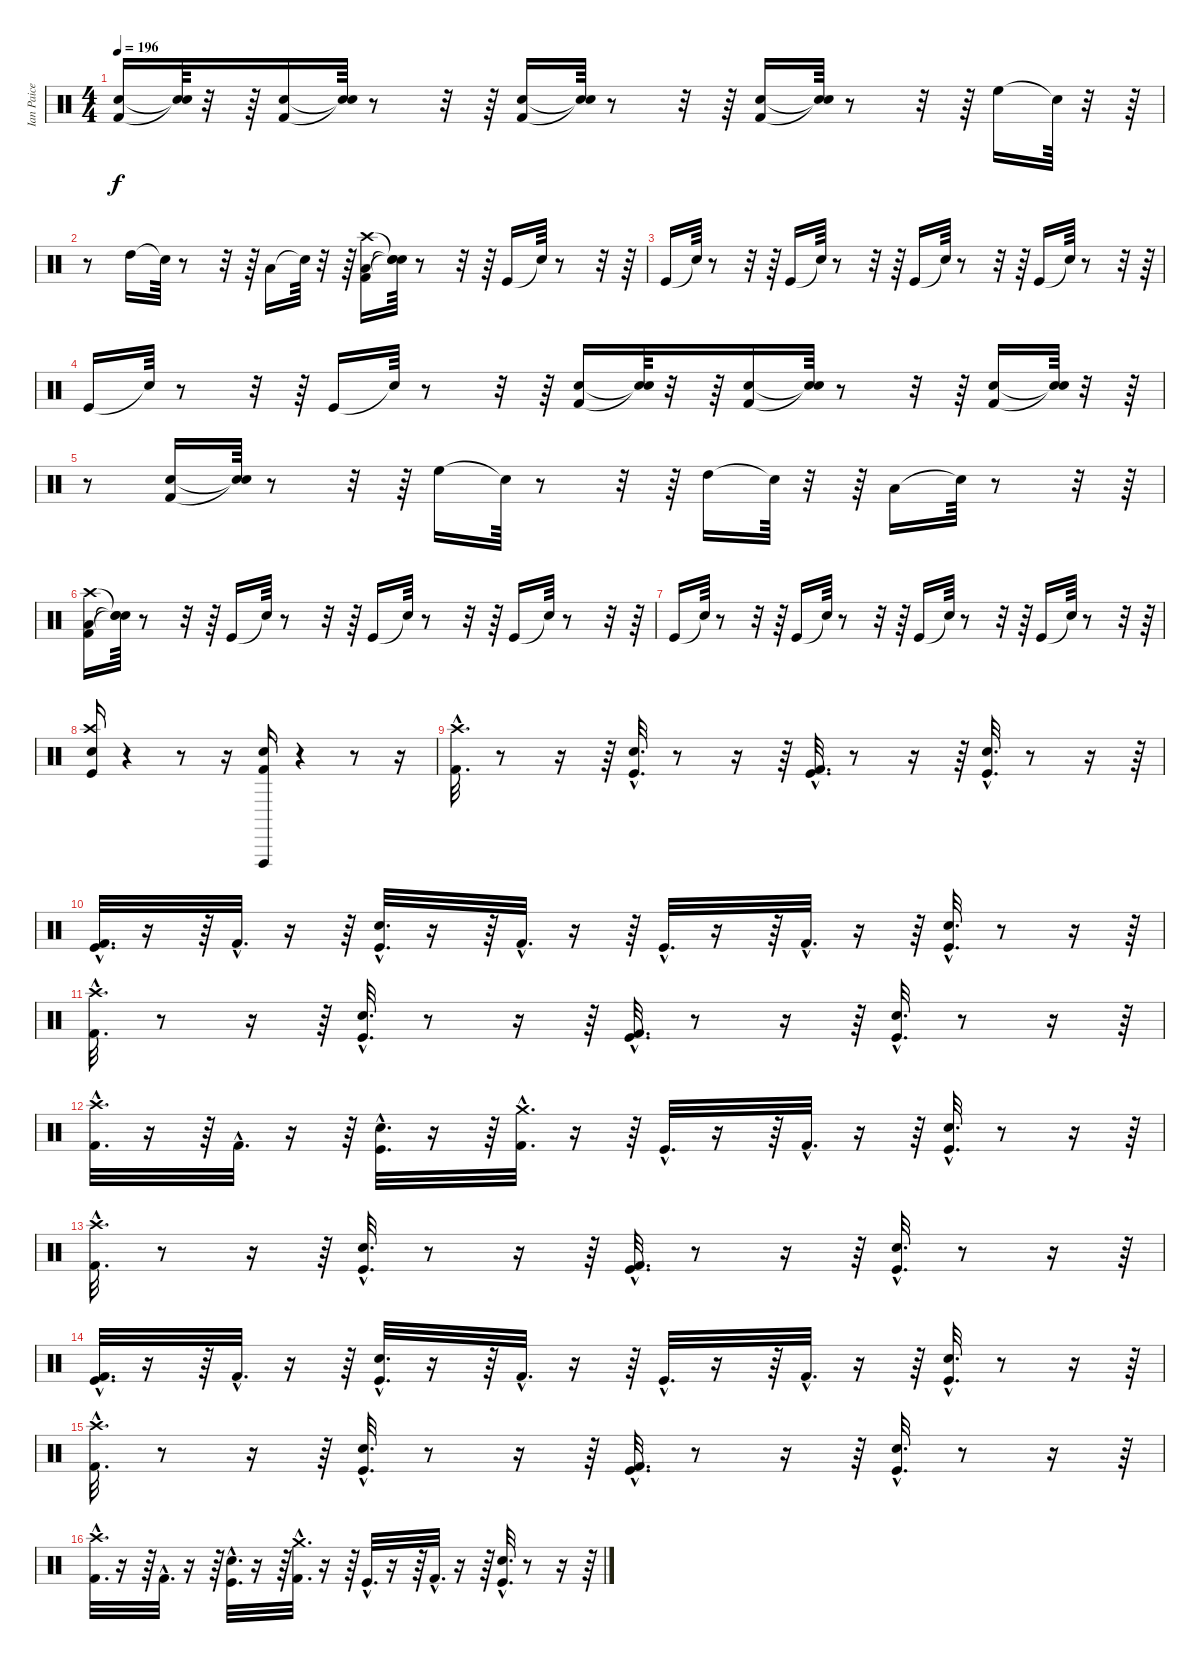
\track ("Ian Paice" "Ian Paice") {instrument percussion}
\staff {score}
\articulation defaults
\ts (4 4)
\tempo 196
\clef neutral
\ks c
("Kick (hit) 2" "Snare (hit) 2").16{dy f} ("Snare (hit)"{t} "Snare (hit)"{t}).64 r.32 r.64 ("Kick (hit) 2" "Snare (hit) 2").16 ("Snare (hit)"{t} "Snare (hit)"{t}).64 r.8 r.32 r.64 ("Kick (hit) 2" "Snare (hit) 2").16 ("Snare (hit)"{t} "Snare (hit)"{t}).64 r.8 r.32 r.64 ("Kick (hit) 2" "Snare (hit) 2").16 ("Snare (hit)"{t} "Snare (hit)"{t}).64 r.8 r.32 r.64 "High Floor Tom (hit)".16 "Snare (hit)"{t}.64 r.32 r.64 |
r.8 "High Tom (hit)".16 "Snare (hit)"{t}.64 r.8 r.32 r.64 "Low Tom (hit)".16 "Snare (hit)"{t}.64 r.32 r.64 ("Kick (hit) 2" "Crash high (hit)" "Low Tom (hit)").16 ("Snare (hit)"{t} "Snare (hit)"{t} "Snare (hit)"{t}).64 r.8 r.32 r.64 "Kick (hit)".16 "Snare (hit)"{t}.64 r.8 r.32 r.64 |
"Kick (hit)".16 "Snare (hit)"{t}.64 r.8 r.32 r.64 "Kick (hit)".16 "Snare (hit)"{t}.64 r.8 r.32 r.64 "Kick (hit)".16 "Snare (hit)"{t}.64 r.8 r.32 r.64 "Kick (hit)".16 "Snare (hit)"{t}.64 r.8 r.32 r.64 |
"Kick (hit)".16 "Snare (hit)"{t}.64 r.8 r.32 r.64 "Kick (hit)".16 "Snare (hit)"{t}.64 r.8 r.32 r.64 ("Snare (hit) 2" "Kick (hit) 2").16 ("Snare (hit)"{t} "Snare (hit)"{t}).64 r.32 r.64 ("Kick (hit) 2" "Snare (hit) 2").16 ("Snare (hit)"{t} "Snare (hit)"{t}).64 r.8 r.32 r.64 ("Kick (hit) 2" "Snare (hit) 2").16 ("Snare (hit)"{t} "Snare (hit)"{t}).64 r.32 r.64 |
r.8 ("Kick (hit) 2" "Snare (hit) 2").16 ("Snare (hit)"{t} "Snare (hit)"{t}).64 r.8 r.32 r.64 "High Floor Tom (hit)".16 "Snare (hit)"{t}.64 r.8 r.32 r.64 "High Tom (hit)".16 "Snare (hit)"{t}.64 r.32 r.64 "Low Tom (hit)".16 "Snare (hit)"{t}.64 r.8 r.32 r.64 |
("Kick (hit) 2" "Low Tom (hit)" "Crash high (hit)").16 ("Snare (hit)"{t} "Snare (hit)"{t} "Snare (hit)"{t}).64 r.8 r.32 r.64 "Kick (hit)".16 "Snare (hit)"{t}.64 r.8 r.32 r.64 "Kick (hit)".16 "Snare (hit)"{t}.64 r.8 r.32 r.64 "Kick (hit)".16 "Snare (hit)"{t}.64 r.8 r.32 r.64 |
"Kick (hit)".16 "Snare (hit)"{t}.64 r.8 r.32 r.64 "Kick (hit)".16 "Snare (hit)"{t}.64 r.8 r.32 r.64 "Kick (hit)".16 "Snare (hit)"{t}.64 r.8 r.32 r.64 "Kick (hit)".16 "Snare (hit)"{t}.64 r.8 r.32 r.64 |
("Crash high (hit)" "Kick (hit)" "Snare (hit) 2").16 r.4 r.8 r.16 ("Vibraslap (hit)" "Kick (hit) 2" "Snare (hit) 2").16 r.4 r.8 r.16 |
("Kick (hit) 2"{hac} "Crash high (hit)"{hac}).32{d} r.8 r.16 r.64 ("Kick (hit)"{hac} "Snare (hit) 2"{hac}).32{d} r.8 r.16 r.64 ("Kick (hit)"{hac} "Kick (hit) 2"{hac}).32{d} r.8 r.16 r.64 ("Kick (hit)"{hac} "Snare (hit) 2"{hac}).32{d} r.8 r.16 r.64 |
("Kick (hit)"{hac} "Kick (hit) 2"{hac}).32{d} r.16 r.64 "Kick (hit) 2"{hac}.32{d} r.16 r.64 ("Snare (hit) 2"{hac} "Kick (hit)"{hac}).32{d} r.16 r.64 "Kick (hit) 2"{hac}.32{d} r.16 r.64 "Kick (hit)"{hac}.32{d} r.16 r.64 "Kick (hit) 2"{hac}.32{d} r.16 r.64 ("Snare (hit) 2"{hac} "Kick (hit)"{hac}).32{d} r.8 r.16 r.64 |
("Kick (hit) 2"{hac} "Crash high (hit)"{hac}).32{d} r.8 r.16 r.64 ("Kick (hit)"{hac} "Snare (hit) 2"{hac}).32{d} r.8 r.16 r.64 ("Kick (hit)"{hac} "Kick (hit) 2"{hac}).32{d} r.8 r.16 r.64 ("Kick (hit)"{hac} "Snare (hit) 2"{hac}).32{d} r.8 r.16 r.64 |
("Crash high (hit)"{hac} "Kick (hit) 2"{hac}).32{d} r.16 r.64 "Kick (hit) 2"{hac}.32{d} r.16 r.64 ("Kick (hit)"{hac} "Snare (hit) 2"{hac}).32{d} r.16 r.64 ("Crash medium (hit)"{hac} "Kick (hit) 2"{hac}).32{d} r.16 r.64 "Kick (hit)"{hac}.32{d} r.16 r.64 "Kick (hit) 2"{hac}.32{d} r.16 r.64 ("Kick (hit)"{hac} "Snare (hit) 2"{hac}).32{d} r.8 r.16 r.64 |
("Kick (hit) 2"{hac} "Crash high (hit)"{hac}).32{d} r.8 r.16 r.64 ("Kick (hit)"{hac} "Snare (hit) 2"{hac}).32{d} r.8 r.16 r.64 ("Kick (hit)"{hac} "Kick (hit) 2"{hac}).32{d} r.8 r.16 r.64 ("Kick (hit)"{hac} "Snare (hit) 2"{hac}).32{d} r.8 r.16 r.64 |
("Kick (hit)"{hac} "Kick (hit) 2"{hac}).32{d} r.16 r.64 "Kick (hit) 2"{hac}.32{d} r.16 r.64 ("Snare (hit) 2"{hac} "Kick (hit)"{hac}).32{d} r.16 r.64 "Kick (hit) 2"{hac}.32{d} r.16 r.64 "Kick (hit)"{hac}.32{d} r.16 r.64 "Kick (hit) 2"{hac}.32{d} r.16 r.64 ("Snare (hit) 2"{hac} "Kick (hit)"{hac}).32{d} r.8 r.16 r.64 |
("Kick (hit) 2"{hac} "Crash high (hit)"{hac}).32{d} r.8 r.16 r.64 ("Kick (hit)"{hac} "Snare (hit) 2"{hac}).32{d} r.8 r.16 r.64 ("Kick (hit)"{hac} "Kick (hit) 2"{hac}).32{d} r.8 r.16 r.64 ("Kick (hit)"{hac} "Snare (hit) 2"{hac}).32{d} r.8 r.16 r.64 |
("Crash high (hit)"{hac} "Kick (hit) 2"{hac}).32{d} r.16 r.64 "Kick (hit) 2"{hac}.32{d} r.16 r.64 ("Kick (hit)"{hac} "Snare (hit) 2"{hac}).32{d} r.16 r.64 ("Crash medium (hit)"{hac} "Kick (hit) 2"{hac}).32{d} r.16 r.64 "Kick (hit)"{hac}.32{d} r.16 r.64 "Kick (hit) 2"{hac}.32{d} r.16 r.64 ("Kick (hit)"{hac} "Snare (hit) 2"{hac}).32{d} r.8 r.16 r.64
